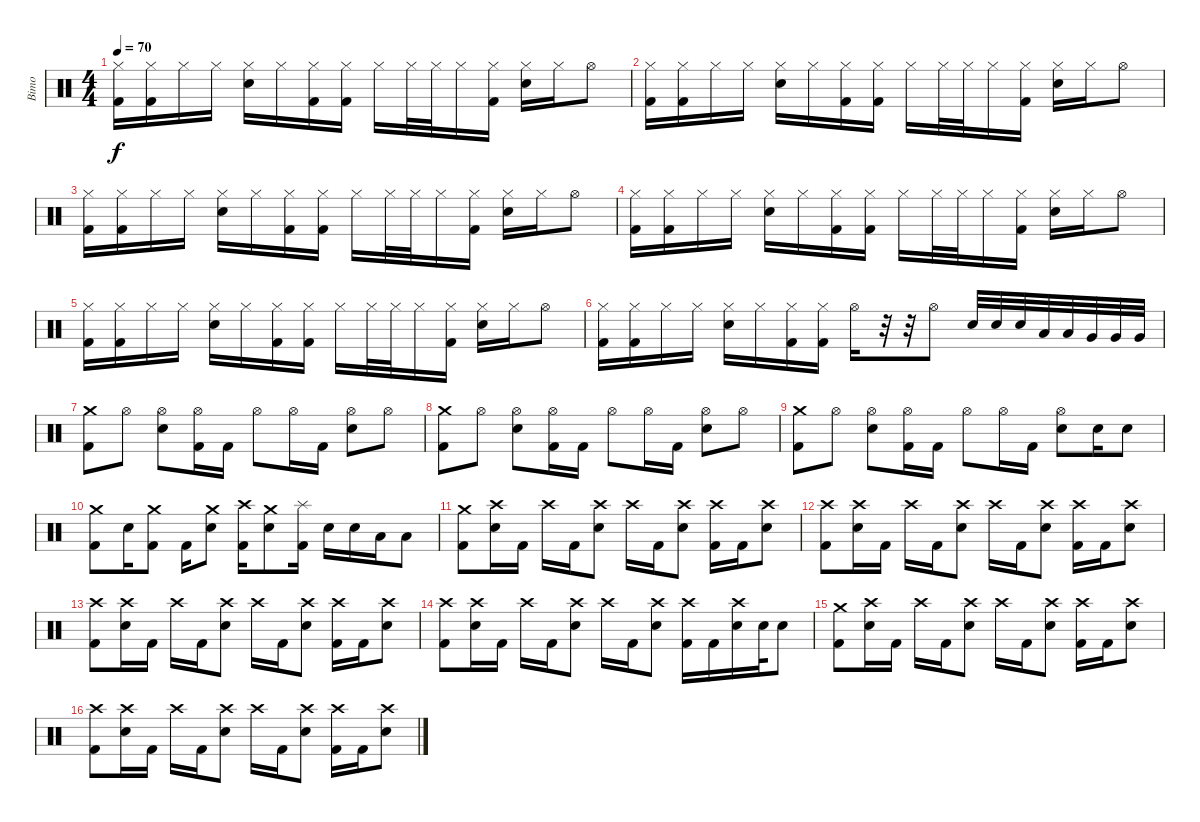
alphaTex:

\track ("Bimo" "Bimo") {instrument percussion}
\staff {score}
\articulation defaults
\ts (4 4)
\tempo 70
\clef neutral
\ks c
("Hi-Hat (closed)" "Kick (hit) 2").16{dy f} ("Hi-Hat (closed)" "Kick (hit) 2").16 "Hi-Hat (closed)".16 "Hi-Hat (closed)".16 ("Hi-Hat (closed)" "Snare (hit) 2").16 "Hi-Hat (closed)".16 ("Hi-Hat (closed)" "Kick (hit) 2").16 ("Hi-Hat (closed)" "Kick (hit) 2").16 "Hi-Hat (closed)".16 "Hi-Hat (closed)".32 "Hi-Hat (closed)".32 "Hi-Hat (closed)".16 ("Hi-Hat (closed)" "Kick (hit) 2").16 ("Hi-Hat (closed)" "Snare (hit) 2").16 "Hi-Hat (closed)".16 "Hi-Hat (open)".8 |
("Hi-Hat (closed)" "Kick (hit) 2").16 ("Hi-Hat (closed)" "Kick (hit) 2").16 "Hi-Hat (closed)".16 "Hi-Hat (closed)".16 ("Hi-Hat (closed)" "Snare (hit) 2").16 "Hi-Hat (closed)".16 ("Hi-Hat (closed)" "Kick (hit) 2").16 ("Hi-Hat (closed)" "Kick (hit) 2").16 "Hi-Hat (closed)".16 "Hi-Hat (closed)".32 "Hi-Hat (closed)".32 "Hi-Hat (closed)".16 ("Hi-Hat (closed)" "Kick (hit) 2").16 ("Hi-Hat (closed)" "Snare (hit) 2").16 "Hi-Hat (closed)".16 "Hi-Hat (open)".8 |
("Hi-Hat (closed)" "Kick (hit) 2").16 ("Hi-Hat (closed)" "Kick (hit) 2").16 "Hi-Hat (closed)".16 "Hi-Hat (closed)".16 ("Hi-Hat (closed)" "Snare (hit) 2").16 "Hi-Hat (closed)".16 ("Hi-Hat (closed)" "Kick (hit) 2").16 ("Hi-Hat (closed)" "Kick (hit) 2").16 "Hi-Hat (closed)".16 "Hi-Hat (closed)".32 "Hi-Hat (closed)".32 "Hi-Hat (closed)".16 ("Hi-Hat (closed)" "Kick (hit) 2").16 ("Hi-Hat (closed)" "Snare (hit) 2").16 "Hi-Hat (closed)".16 "Hi-Hat (open)".8 |
("Hi-Hat (closed)" "Kick (hit) 2").16 ("Hi-Hat (closed)" "Kick (hit) 2").16 "Hi-Hat (closed)".16 "Hi-Hat (closed)".16 ("Hi-Hat (closed)" "Snare (hit) 2").16 "Hi-Hat (closed)".16 ("Hi-Hat (closed)" "Kick (hit) 2").16 ("Hi-Hat (closed)" "Kick (hit) 2").16 "Hi-Hat (closed)".16 "Hi-Hat (closed)".32 "Hi-Hat (closed)".32 "Hi-Hat (closed)".16 ("Hi-Hat (closed)" "Kick (hit) 2").16 ("Hi-Hat (closed)" "Snare (hit) 2").16 "Hi-Hat (closed)".16 "Hi-Hat (open)".8 |
("Hi-Hat (closed)" "Kick (hit) 2").16 ("Hi-Hat (closed)" "Kick (hit) 2").16 "Hi-Hat (closed)".16 "Hi-Hat (closed)".16 ("Hi-Hat (closed)" "Snare (hit) 2").16 "Hi-Hat (closed)".16 ("Hi-Hat (closed)" "Kick (hit) 2").16 ("Hi-Hat (closed)" "Kick (hit) 2").16 "Hi-Hat (closed)".16 "Hi-Hat (closed)".32 "Hi-Hat (closed)".32 "Hi-Hat (closed)".16 ("Hi-Hat (closed)" "Kick (hit) 2").16 ("Hi-Hat (closed)" "Snare (hit) 2").16 "Hi-Hat (closed)".16 "Hi-Hat (open)".8 |
("Hi-Hat (closed)" "Kick (hit) 2").16 ("Hi-Hat (closed)" "Kick (hit) 2").16 "Hi-Hat (closed)".16 "Hi-Hat (closed)".16 ("Hi-Hat (closed)" "Snare (hit) 2").16 "Hi-Hat (closed)".16 ("Hi-Hat (closed)" "Kick (hit) 2").16 ("Hi-Hat (closed)" "Kick (hit) 2").16 "Hi-Hat (open)".16 r.32 r.32 "Hi-Hat (open)".8 "Snare (hit) 2".32 "Snare (hit) 2".32 "Snare (hit) 2".32 "Low Tom (hit)".32 "Low Tom (hit)".32 "Very Low Tom (hit)".32 "Very Low Tom (hit)".32 "Very Low Tom (hit)".32 |
("Crash medium (hit)" "Kick (hit) 2").8 "Hi-Hat (open)".8 ("Hi-Hat (open)" "Snare (hit) 2").8 ("Hi-Hat (open)" "Kick (hit) 2").16 "Kick (hit) 2".16 "Hi-Hat (open)".8 "Hi-Hat (open)".16 "Kick (hit) 2".16 ("Hi-Hat (open)" "Snare (hit) 2").8 "Hi-Hat (open)".8 |
("Crash medium (hit)" "Kick (hit) 2").8 "Hi-Hat (open)".8 ("Hi-Hat (open)" "Snare (hit) 2").8 ("Hi-Hat (open)" "Kick (hit) 2").16 "Kick (hit) 2".16 "Hi-Hat (open)".8 "Hi-Hat (open)".16 "Kick (hit) 2".16 ("Hi-Hat (open)" "Snare (hit) 2").8 "Hi-Hat (open)".8 |
("Crash medium (hit)" "Kick (hit) 2").8 "Hi-Hat (open)".8 ("Hi-Hat (open)" "Snare (hit) 2").8 ("Hi-Hat (open)" "Kick (hit) 2").16 "Kick (hit) 2".16 "Hi-Hat (open)".8 "Hi-Hat (open)".16 "Kick (hit) 2".16 ("Hi-Hat (open)" "Snare (hit) 2").8 "Snare (hit) 2".16 "Snare (hit) 2".8 |
("Crash medium (hit)" "Kick (hit) 2").8 "Snare (hit) 2".16 ("Crash medium (hit)" "Kick (hit) 2").8 "Kick (hit) 2".16 ("Crash medium (hit)" "Snare (hit) 2").8 ("Crash high (hit)" "Kick (hit) 2").16 ("Crash medium (hit)" "Snare (hit) 2").8 ("Splash (hit)" "Kick (hit) 2").16 "Snare (hit) 2".16 "Snare (hit) 2".16 "Low Tom (hit)".16 "Low Tom (hit)".8 |
("Crash medium (hit)" "Kick (hit) 2").8 ("Crash high (hit)" "Snare (hit) 2").16 "Kick (hit) 2".16 "Crash high (hit)".16 "Kick (hit) 2".16 ("Crash high (hit)" "Snare (hit) 2").8 "Crash high (hit)".16 "Kick (hit) 2".16 ("Crash high (hit)" "Snare (hit) 2").8 ("Crash high (hit)" "Kick (hit) 2").16 "Kick (hit) 2".16 ("Crash high (hit)" "Snare (hit) 2").8 |
("Crash high (hit)" "Kick (hit) 2").8 ("Crash high (hit)" "Snare (hit) 2").16 "Kick (hit) 2".16 "Crash high (hit)".16 "Kick (hit) 2".16 ("Crash high (hit)" "Snare (hit) 2").8 "Crash high (hit)".16 "Kick (hit) 2".16 ("Crash high (hit)" "Snare (hit) 2").8 ("Crash high (hit)" "Kick (hit) 2").16 "Kick (hit) 2".16 ("Crash high (hit)" "Snare (hit) 2").8 |
("Crash high (hit)" "Kick (hit) 2").8 ("Crash high (hit)" "Snare (hit) 2").16 "Kick (hit) 2".16 "Crash high (hit)".16 "Kick (hit) 2".16 ("Crash high (hit)" "Snare (hit) 2").8 "Crash high (hit)".16 "Kick (hit) 2".16 ("Crash high (hit)" "Snare (hit) 2").8 ("Crash high (hit)" "Kick (hit) 2").16 "Kick (hit) 2".16 ("Crash high (hit)" "Snare (hit) 2").8 |
("Crash high (hit)" "Kick (hit) 2").8 ("Crash high (hit)" "Snare (hit) 2").16 "Kick (hit) 2".16 "Crash high (hit)".16 "Kick (hit) 2".16 ("Crash high (hit)" "Snare (hit) 2").8 "Crash high (hit)".16 "Kick (hit) 2".16 ("Crash high (hit)" "Snare (hit) 2").8 ("Crash high (hit)" "Kick (hit) 2").16 "Kick (hit) 2".16 ("Crash high (hit)" "Snare (hit) 2").16 "Snare (hit) 2".32 "Snare (hit) 2".8 |
("Crash medium (hit)" "Kick (hit) 2").8 ("Crash high (hit)" "Snare (hit) 2").16 "Kick (hit) 2".16 "Crash high (hit)".16 "Kick (hit) 2".16 ("Crash high (hit)" "Snare (hit) 2").8 "Crash high (hit)".16 "Kick (hit) 2".16 ("Crash high (hit)" "Snare (hit) 2").8 ("Crash high (hit)" "Kick (hit) 2").16 "Kick (hit) 2".16 ("Crash high (hit)" "Snare (hit) 2").8 |
("Crash high (hit)" "Kick (hit) 2").8 ("Crash high (hit)" "Snare (hit) 2").16 "Kick (hit) 2".16 "Crash high (hit)".16 "Kick (hit) 2".16 ("Crash high (hit)" "Snare (hit) 2").8 "Crash high (hit)".16 "Kick (hit) 2".16 ("Crash high (hit)" "Snare (hit) 2").8 ("Crash high (hit)" "Kick (hit) 2").16 "Kick (hit) 2".16 ("Crash high (hit)" "Snare (hit) 2").8
